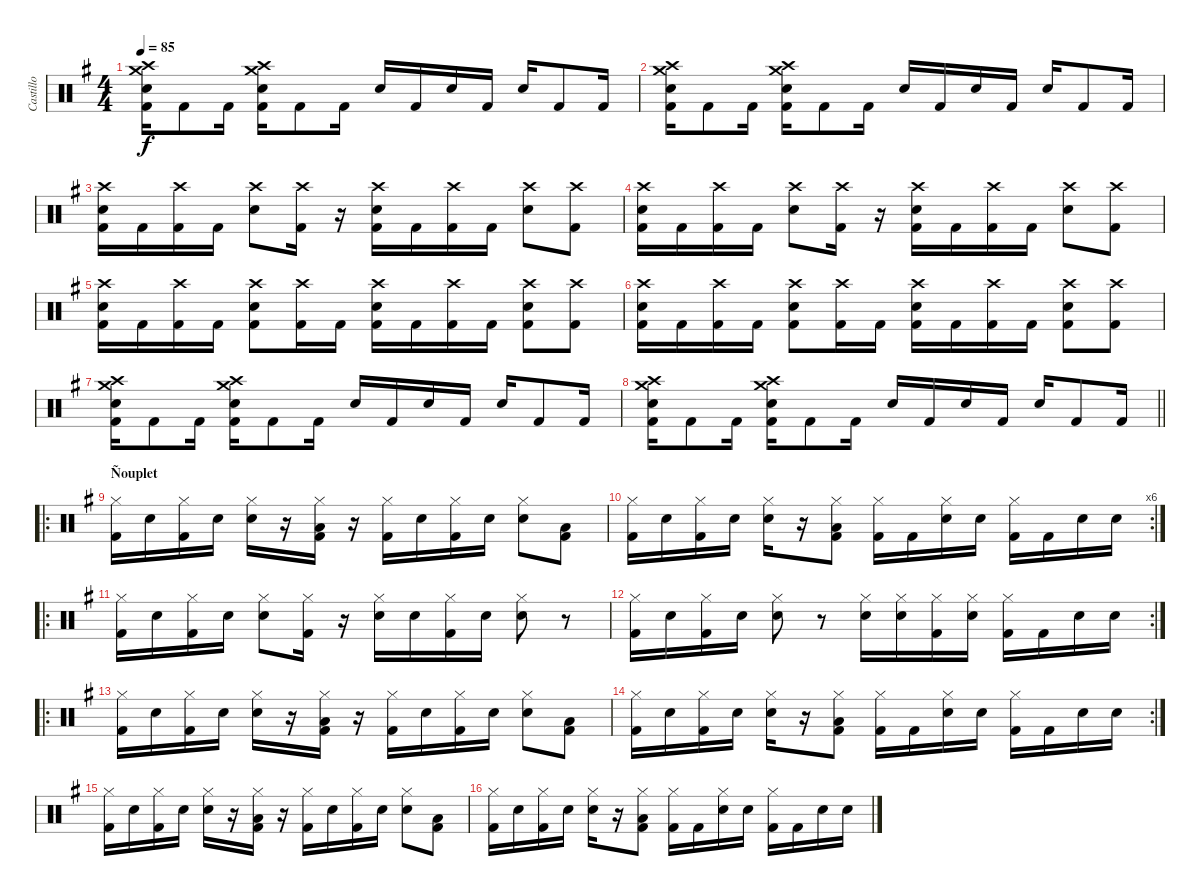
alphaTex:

\track ("Castillo" "Castillo") {instrument percussion}
\staff {score}
\articulation defaults
\ts (4 4)
\tempo 85
\clef neutral
\ks g
("Kick (hit) 2" "Electric Snare (hit)" "Crash high (hit)" "Crash medium (hit)").16{dy f} "Kick (hit) 2".8 "Kick (hit) 2".16 ("Kick (hit) 2" "Electric Snare (hit)" "Crash high (hit)" "Crash medium (hit)").16 "Kick (hit) 2".8 "Kick (hit) 2".16 "Electric Snare (hit)".16 "Kick (hit) 2".16 "Electric Snare (hit)".16 "Kick (hit) 2".16 "Electric Snare (hit)".16 "Kick (hit) 2".8 "Kick (hit) 2".16 |
("Kick (hit) 2" "Electric Snare (hit)" "Crash high (hit)" "Crash medium (hit)").16 "Kick (hit) 2".8 "Kick (hit) 2".16 ("Kick (hit) 2" "Electric Snare (hit)" "Crash high (hit)" "Crash medium (hit)").16 "Kick (hit) 2".8 "Kick (hit) 2".16 "Electric Snare (hit)".16 "Kick (hit) 2".16 "Electric Snare (hit)".16 "Kick (hit) 2".16 "Electric Snare (hit)".16 "Kick (hit) 2".8 "Kick (hit) 2".16 |
("Kick (hit) 2" "Electric Snare (hit)" "Crash high (hit)").16 "Kick (hit) 2".16 ("Kick (hit) 2" "Crash high (hit)").16 "Kick (hit) 2".16 ("Electric Snare (hit)" "Crash high (hit)").8 ("Kick (hit) 2" "Crash high (hit)").16 r.16 ("Kick (hit) 2" "Electric Snare (hit)" "Crash high (hit)").16 "Kick (hit) 2".16 ("Kick (hit) 2" "Crash high (hit)").16 "Kick (hit) 2".16 ("Electric Snare (hit)" "Crash high (hit)").8 ("Kick (hit) 2" "Crash high (hit)").8 |
("Kick (hit) 2" "Electric Snare (hit)" "Crash high (hit)").16 "Kick (hit) 2".16 ("Kick (hit) 2" "Crash high (hit)").16 "Kick (hit) 2".16 ("Electric Snare (hit)" "Crash high (hit)").8 ("Kick (hit) 2" "Crash high (hit)").16 r.16 ("Kick (hit) 2" "Electric Snare (hit)" "Crash high (hit)").16 "Kick (hit) 2".16 ("Kick (hit) 2" "Crash high (hit)").16 "Kick (hit) 2".16 ("Electric Snare (hit)" "Crash high (hit)").8 ("Kick (hit) 2" "Crash high (hit)").8 |
("Kick (hit) 2" "Electric Snare (hit)" "Crash high (hit)").16 "Kick (hit) 2".16 ("Kick (hit) 2" "Crash high (hit)").16 "Kick (hit) 2".16 ("Kick (hit) 2" "Electric Snare (hit)" "Crash high (hit)").8 ("Kick (hit) 2" "Crash high (hit)").16 "Kick (hit) 2".16 ("Kick (hit) 2" "Electric Snare (hit)" "Crash high (hit)").16 "Kick (hit) 2".16 ("Kick (hit) 2" "Crash high (hit)").16 "Kick (hit) 2".16 ("Kick (hit) 2" "Electric Snare (hit)" "Crash high (hit)").8 ("Kick (hit) 2" "Crash high (hit)").8 |
("Kick (hit) 2" "Electric Snare (hit)" "Crash high (hit)").16 "Kick (hit) 2".16 ("Kick (hit) 2" "Crash high (hit)").16 "Kick (hit) 2".16 ("Kick (hit) 2" "Electric Snare (hit)" "Crash high (hit)").8 ("Kick (hit) 2" "Crash high (hit)").16 "Kick (hit) 2".16 ("Kick (hit) 2" "Electric Snare (hit)" "Crash high (hit)").16 "Kick (hit) 2".16 ("Kick (hit) 2" "Crash high (hit)").16 "Kick (hit) 2".16 ("Kick (hit) 2" "Electric Snare (hit)" "Crash high (hit)").8 ("Kick (hit) 2" "Crash high (hit)").8 |
("Kick (hit) 2" "Electric Snare (hit)" "Crash high (hit)" "Crash medium (hit)").16 "Kick (hit) 2".8 "Kick (hit) 2".16 ("Kick (hit) 2" "Electric Snare (hit)" "Crash high (hit)" "Crash medium (hit)").16 "Kick (hit) 2".8 "Kick (hit) 2".16 "Electric Snare (hit)".16 "Kick (hit) 2".16 "Electric Snare (hit)".16 "Kick (hit) 2".16 "Electric Snare (hit)".16 "Kick (hit) 2".8 "Kick (hit) 2".16 |
\barLineRight lightlight
("Kick (hit) 2" "Electric Snare (hit)" "Crash high (hit)" "Crash medium (hit)").16 "Kick (hit) 2".8 "Kick (hit) 2".16 ("Kick (hit) 2" "Electric Snare (hit)" "Crash high (hit)" "Crash medium (hit)").16 "Kick (hit) 2".8 "Kick (hit) 2".16 "Electric Snare (hit)".16 "Kick (hit) 2".16 "Electric Snare (hit)".16 "Kick (hit) 2".16 "Electric Snare (hit)".16 "Kick (hit) 2".8 "Kick (hit) 2".16 |
\ro
\section ("" "Ñouplet")
("Hi-Hat (closed)" "Kick (hit) 2").16 "Electric Snare (hit)".16 ("Hi-Hat (closed)" "Kick (hit) 2").16 "Electric Snare (hit)".16 ("Hi-Hat (closed)" "Electric Snare (hit)").16 r.16 ("Hi-Hat (closed)" "Kick (hit) 2" "Low Floor Tom (hit)").16 r.16 ("Hi-Hat (closed)" "Kick (hit) 2").16 "Electric Snare (hit)".16 ("Hi-Hat (closed)" "Kick (hit) 2").16 "Electric Snare (hit)".16 ("Hi-Hat (closed)" "Electric Snare (hit)").8 ("Kick (hit) 2" "Low Floor Tom (hit)").8 |
\rc 6
("Hi-Hat (closed)" "Kick (hit) 2").16 "Electric Snare (hit)".16 ("Hi-Hat (closed)" "Kick (hit) 2").16 "Electric Snare (hit)".16 ("Hi-Hat (closed)" "Electric Snare (hit)").16 r.16 ("Hi-Hat (closed)" "Kick (hit) 2" "Low Floor Tom (hit)").8 ("Hi-Hat (closed)" "Kick (hit) 2").16 "Kick (hit) 2".16 ("Hi-Hat (closed)" "Electric Snare (hit)").16 "Electric Snare (hit)".16 ("Hi-Hat (closed)" "Kick (hit) 2").16 "Kick (hit) 2".16 "Electric Snare (hit)".16 "Electric Snare (hit)".16 |
\ro
("Hi-Hat (closed)" "Kick (hit) 2").16 "Electric Snare (hit)".16 ("Hi-Hat (closed)" "Kick (hit) 2").16 "Electric Snare (hit)".16 ("Hi-Hat (closed)" "Electric Snare (hit)").8 ("Hi-Hat (closed)" "Kick (hit) 2").16 r.16 ("Hi-Hat (closed)" "Electric Snare (hit)").16 "Electric Snare (hit)".16 ("Hi-Hat (closed)" "Kick (hit) 2").16 "Electric Snare (hit)".16 ("Hi-Hat (closed)" "Electric Snare (hit)").8 r.8 |
\rc 2
("Hi-Hat (closed)" "Kick (hit) 2").16 "Electric Snare (hit)".16 ("Hi-Hat (closed)" "Kick (hit) 2").16 "Electric Snare (hit)".16 ("Hi-Hat (closed)" "Electric Snare (hit)").8 r.8 ("Hi-Hat (closed)" "Electric Snare (hit)").16 ("Hi-Hat (closed)" "Electric Snare (hit)").16 ("Hi-Hat (closed)" "Kick (hit) 2").16 ("Hi-Hat (closed)" "Electric Snare (hit)").16 ("Hi-Hat (closed)" "Kick (hit) 2").16 "Kick (hit) 2".16 "Electric Snare (hit)".16 "Electric Snare (hit)".16 |
\ro
("Hi-Hat (closed)" "Kick (hit) 2").16 "Electric Snare (hit)".16 ("Hi-Hat (closed)" "Kick (hit) 2").16 "Electric Snare (hit)".16 ("Hi-Hat (closed)" "Electric Snare (hit)").16 r.16 ("Hi-Hat (closed)" "Kick (hit) 2" "Low Floor Tom (hit)").16 r.16 ("Hi-Hat (closed)" "Kick (hit) 2").16 "Electric Snare (hit)".16 ("Hi-Hat (closed)" "Kick (hit) 2").16 "Electric Snare (hit)".16 ("Hi-Hat (closed)" "Electric Snare (hit)").8 ("Kick (hit) 2" "Low Floor Tom (hit)").8 |
\rc 2
("Hi-Hat (closed)" "Kick (hit) 2").16 "Electric Snare (hit)".16 ("Hi-Hat (closed)" "Kick (hit) 2").16 "Electric Snare (hit)".16 ("Hi-Hat (closed)" "Electric Snare (hit)").16 r.16 ("Hi-Hat (closed)" "Kick (hit) 2" "Low Floor Tom (hit)").8 ("Hi-Hat (closed)" "Kick (hit) 2").16 "Kick (hit) 2".16 ("Hi-Hat (closed)" "Electric Snare (hit)").16 "Electric Snare (hit)".16 ("Hi-Hat (closed)" "Kick (hit) 2").16 "Kick (hit) 2".16 "Electric Snare (hit)".16 "Electric Snare (hit)".16 |
("Hi-Hat (closed)" "Kick (hit) 2").16 "Electric Snare (hit)".16 ("Hi-Hat (closed)" "Kick (hit) 2").16 "Electric Snare (hit)".16 ("Hi-Hat (closed)" "Electric Snare (hit)").16 r.16 ("Hi-Hat (closed)" "Kick (hit) 2" "Low Floor Tom (hit)").16 r.16 ("Hi-Hat (closed)" "Kick (hit) 2").16 "Electric Snare (hit)".16 ("Hi-Hat (closed)" "Kick (hit) 2").16 "Electric Snare (hit)".16 ("Hi-Hat (closed)" "Electric Snare (hit)").8 ("Kick (hit) 2" "Low Floor Tom (hit)").8 |
("Hi-Hat (closed)" "Kick (hit) 2").16 "Electric Snare (hit)".16 ("Hi-Hat (closed)" "Kick (hit) 2").16 "Electric Snare (hit)".16 ("Hi-Hat (closed)" "Electric Snare (hit)").16 r.16 ("Hi-Hat (closed)" "Kick (hit) 2" "Low Floor Tom (hit)").8 ("Hi-Hat (closed)" "Kick (hit) 2").16 "Kick (hit) 2".16 ("Hi-Hat (closed)" "Electric Snare (hit)").16 "Electric Snare (hit)".16 ("Hi-Hat (closed)" "Kick (hit) 2").16 "Kick (hit) 2".16 "Electric Snare (hit)".16 "Electric Snare (hit)".16
